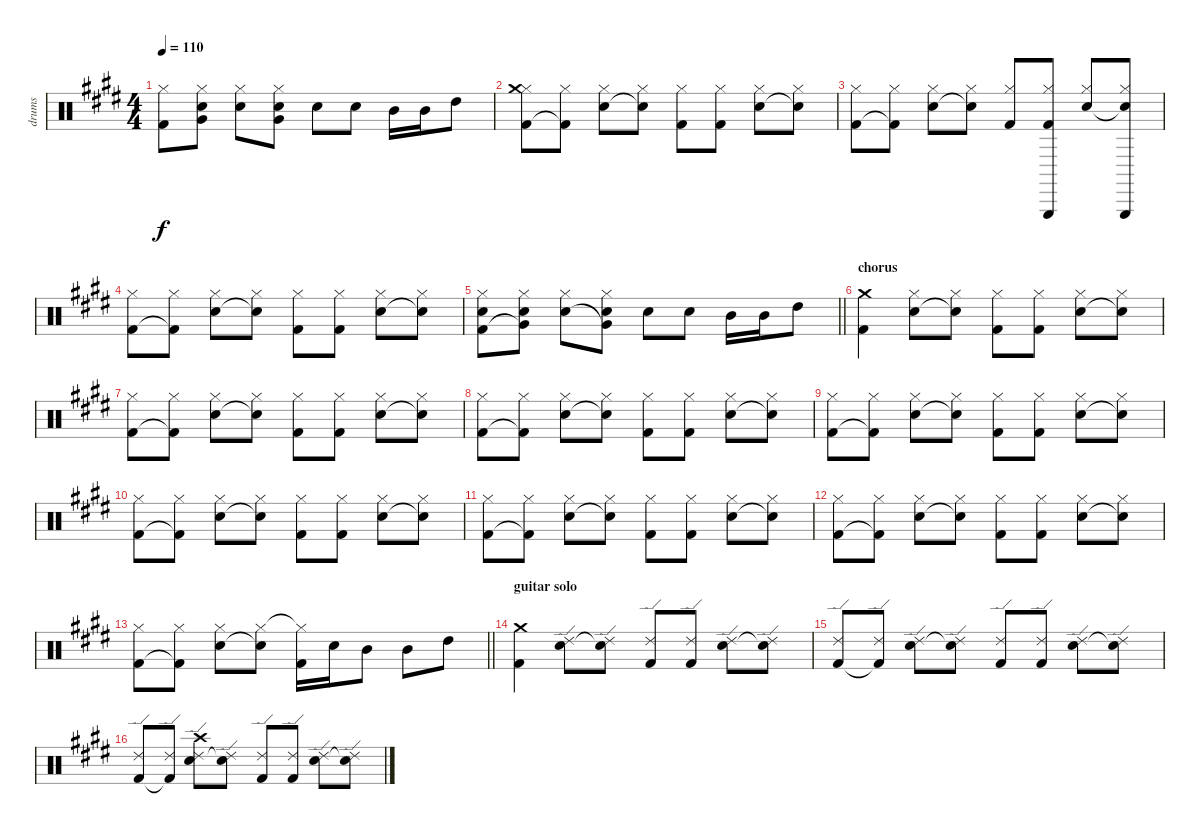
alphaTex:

\track ("drums" "drums") {instrument percussion}
\staff {score}
\articulation defaults
\ts (4 4)
\tempo 110
\clef neutral
\ks e
("Kick (hit) 2" "Hi-Hat (closed)").8{dy f} ("Very Low Tom (hit)" "Hi-Hat (closed)" "Electric Snare (hit)").8 ("Electric Snare (hit)" "Hi-Hat (closed)").8 ("Very Low Tom (hit)" "Hi-Hat (closed)" "Electric Snare (hit)").8 "Electric Snare (hit)".8 "Electric Snare (hit)".8 "Mid Tom (hit)".16 "Mid Tom (hit)".16 "High Tom (hit)".8 |
("Kick (hit) 2" "Hi-Hat (closed)" "Crash medium (hit)").8 ("Kick (hit) 2"{t} "Hi-Hat (closed)").8 ("Electric Snare (hit)" "Hi-Hat (closed)").8 ("Snare (hit)"{t} "Hi-Hat (closed)").8 ("Kick (hit) 2" "Hi-Hat (closed)").8 ("Kick (hit) 2" "Hi-Hat (closed)").8 ("Electric Snare (hit)" "Hi-Hat (closed)").8 ("Snare (hit)"{t} "Hi-Hat (closed)").8 |
("Kick (hit) 2" "Hi-Hat (closed)").8 ("Kick (hit) 2"{t} "Hi-Hat (closed)").8 ("Electric Snare (hit)" "Hi-Hat (closed)").8 ("Snare (hit)"{t} "Hi-Hat (closed)").8 ("Kick (hit) 2" "Hi-Hat (closed)").8 ("Kick (hit) 2" "Hi-Hat (closed)" "Triangle (hit)").8 ("Electric Snare (hit)" "Hi-Hat (closed)").8 ("Snare (hit)"{t} "Hi-Hat (closed)" "Triangle (hit)").8 |
("Kick (hit) 2" "Hi-Hat (closed)").8 ("Kick (hit) 2"{t} "Hi-Hat (closed)").8 ("Electric Snare (hit)" "Hi-Hat (closed)").8 ("Snare (hit)"{t} "Hi-Hat (closed)").8 ("Kick (hit) 2" "Hi-Hat (closed)").8 ("Kick (hit) 2" "Hi-Hat (closed)").8 ("Electric Snare (hit)" "Hi-Hat (closed)").8 ("Snare (hit)"{t} "Hi-Hat (closed)").8 |
\barLineRight lightlight
("Kick (hit) 2" "Hi-Hat (closed)" "Electric Snare (hit)").8 ("Very Low Tom (hit)"{t} "Hi-Hat (closed)" "Electric Snare (hit)").8 ("Electric Snare (hit)" "Hi-Hat (closed)").8 ("Very Low Tom (hit)"{t} "Hi-Hat (closed)" "Electric Snare (hit)").8 "Electric Snare (hit)".8 "Electric Snare (hit)".8 "Mid Tom (hit)".16 "Mid Tom (hit)".16 "High Tom (hit)".8 |
\section ("" "chorus")
("Kick (hit) 2" "Crash medium (hit)").4 ("Electric Snare (hit)" "Hi-Hat (closed)").8 ("Snare (hit)"{t} "Hi-Hat (closed)").8 ("Kick (hit) 2" "Hi-Hat (closed)").8 ("Kick (hit) 2" "Hi-Hat (closed)").8 ("Electric Snare (hit)" "Hi-Hat (closed)").8 ("Snare (hit)"{t} "Hi-Hat (closed)").8 |
("Kick (hit) 2" "Hi-Hat (closed)").8 ("Kick (hit) 2"{t} "Hi-Hat (closed)").8 ("Electric Snare (hit)" "Hi-Hat (closed)").8 ("Snare (hit)"{t} "Hi-Hat (closed)").8 ("Kick (hit) 2" "Hi-Hat (closed)").8 ("Kick (hit) 2" "Hi-Hat (closed)").8 ("Electric Snare (hit)" "Hi-Hat (closed)").8 ("Snare (hit)"{t} "Hi-Hat (closed)").8 |
("Kick (hit) 2" "Hi-Hat (closed)").8 ("Kick (hit) 2"{t} "Hi-Hat (closed)").8 ("Electric Snare (hit)" "Hi-Hat (closed)").8 ("Snare (hit)"{t} "Hi-Hat (closed)").8 ("Kick (hit) 2" "Hi-Hat (closed)").8 ("Kick (hit) 2" "Hi-Hat (closed)").8 ("Electric Snare (hit)" "Hi-Hat (closed)").8 ("Snare (hit)"{t} "Hi-Hat (closed)").8 |
("Kick (hit) 2" "Hi-Hat (closed)").8 ("Kick (hit) 2"{t} "Hi-Hat (closed)").8 ("Electric Snare (hit)" "Hi-Hat (closed)").8 ("Snare (hit)"{t} "Hi-Hat (closed)").8 ("Kick (hit) 2" "Hi-Hat (closed)").8 ("Kick (hit) 2" "Hi-Hat (closed)").8 ("Electric Snare (hit)" "Hi-Hat (closed)").8 ("Snare (hit)"{t} "Hi-Hat (closed)").8 |
("Kick (hit) 2" "Hi-Hat (closed)").8 ("Kick (hit) 2"{t} "Hi-Hat (closed)").8 ("Electric Snare (hit)" "Hi-Hat (closed)").8 ("Snare (hit)"{t} "Hi-Hat (closed)").8 ("Kick (hit) 2" "Hi-Hat (closed)").8 ("Kick (hit) 2" "Hi-Hat (closed)").8 ("Electric Snare (hit)" "Hi-Hat (closed)").8 ("Snare (hit)"{t} "Hi-Hat (closed)").8 |
("Kick (hit) 2" "Hi-Hat (closed)").8 ("Kick (hit) 2"{t} "Hi-Hat (closed)").8 ("Electric Snare (hit)" "Hi-Hat (closed)").8 ("Snare (hit)"{t} "Hi-Hat (closed)").8 ("Kick (hit) 2" "Hi-Hat (closed)").8 ("Kick (hit) 2" "Hi-Hat (closed)").8 ("Electric Snare (hit)" "Hi-Hat (closed)").8 ("Snare (hit)"{t} "Hi-Hat (closed)").8 |
("Kick (hit) 2" "Hi-Hat (closed)").8 ("Kick (hit) 2"{t} "Hi-Hat (closed)").8 ("Electric Snare (hit)" "Hi-Hat (closed)").8 ("Snare (hit)"{t} "Hi-Hat (closed)").8 ("Kick (hit) 2" "Hi-Hat (closed)").8 ("Kick (hit) 2" "Hi-Hat (closed)").8 ("Electric Snare (hit)" "Hi-Hat (closed)").8 ("Snare (hit)"{t} "Hi-Hat (closed)").8 |
\barLineRight lightlight
("Kick (hit) 2" "Hi-Hat (closed)").8 ("Kick (hit) 2"{t} "Hi-Hat (closed)").8 ("Electric Snare (hit)" "Hi-Hat (closed)").8 ("Snare (hit)"{t} "Hi-Hat (closed)").8 ("Kick (hit) 2" "Hi-Hat (closed)"{t}).16 "Electric Snare (hit)".16 "Mid Tom (hit)".8 "Mid Tom (hit)".8 "High Tom (hit)".8 |
\section ("" "guitar solo")
("Kick (hit) 2" "Crash medium (hit)").4 ("Electric Snare (hit)" "Ride (edge) 2").8 ("Snare (hit)"{t} "Ride (edge) 2").8 ("Kick (hit) 2" "Ride (edge) 2").8 ("Kick (hit) 2" "Ride (edge) 2").8 ("Electric Snare (hit)" "Ride (edge) 2").8 ("Snare (hit)"{t} "Ride (edge) 2").8 |
("Kick (hit) 2" "Ride (edge) 2").8 ("Kick (hit) 2"{t} "Ride (edge) 2").8 ("Electric Snare (hit)" "Ride (edge) 2").8 ("Snare (hit)"{t} "Ride (edge) 2").8 ("Kick (hit) 2" "Ride (edge) 2").8 ("Kick (hit) 2" "Ride (edge) 2").8 ("Electric Snare (hit)" "Ride (edge) 2").8 ("Snare (hit)"{t} "Ride (edge) 2").8 |
("Kick (hit) 2" "Ride (edge) 2").8 ("Kick (hit) 2"{t} "Ride (edge) 2").8 ("Electric Snare (hit)" "Ride (edge) 2" "Crash high (hit)").8 ("Snare (hit)"{t} "Ride (edge) 2").8 ("Kick (hit) 2" "Ride (edge) 2").8 ("Kick (hit) 2" "Ride (edge) 2").8 ("Electric Snare (hit)" "Ride (edge) 2").8 ("Snare (hit)"{t} "Ride (edge) 2").8
